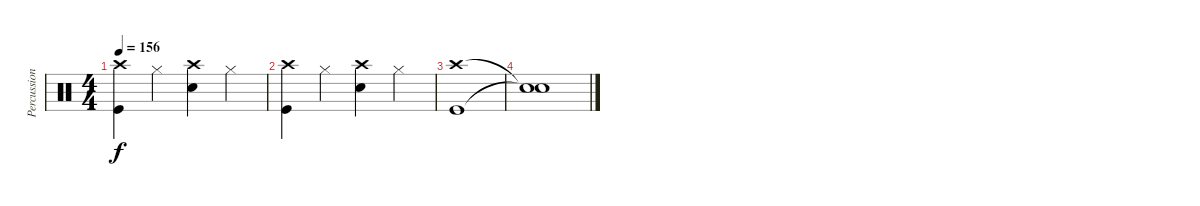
\track ("Percussion" "Percussion") {instrument percussion}
\staff {score}
\articulation defaults
\ts (4 4)
\tempo 156
\clef neutral
\ks c
("Crash high (hit)" "Kick (hit)").4{dy f} "Hi-Hat (closed)".4 ("Crash high (hit)" "Snare (hit) 2").4 "Hi-Hat (closed)".4 |
("Crash high (hit)" "Kick (hit)").4 "Hi-Hat (closed)".4 ("Crash high (hit)" "Snare (hit) 2").4 "Hi-Hat (closed)".4 |
("Crash high (hit)" "Kick (hit)").1 |
("Snare (hit)"{t} "Snare (hit)"{t}).1
